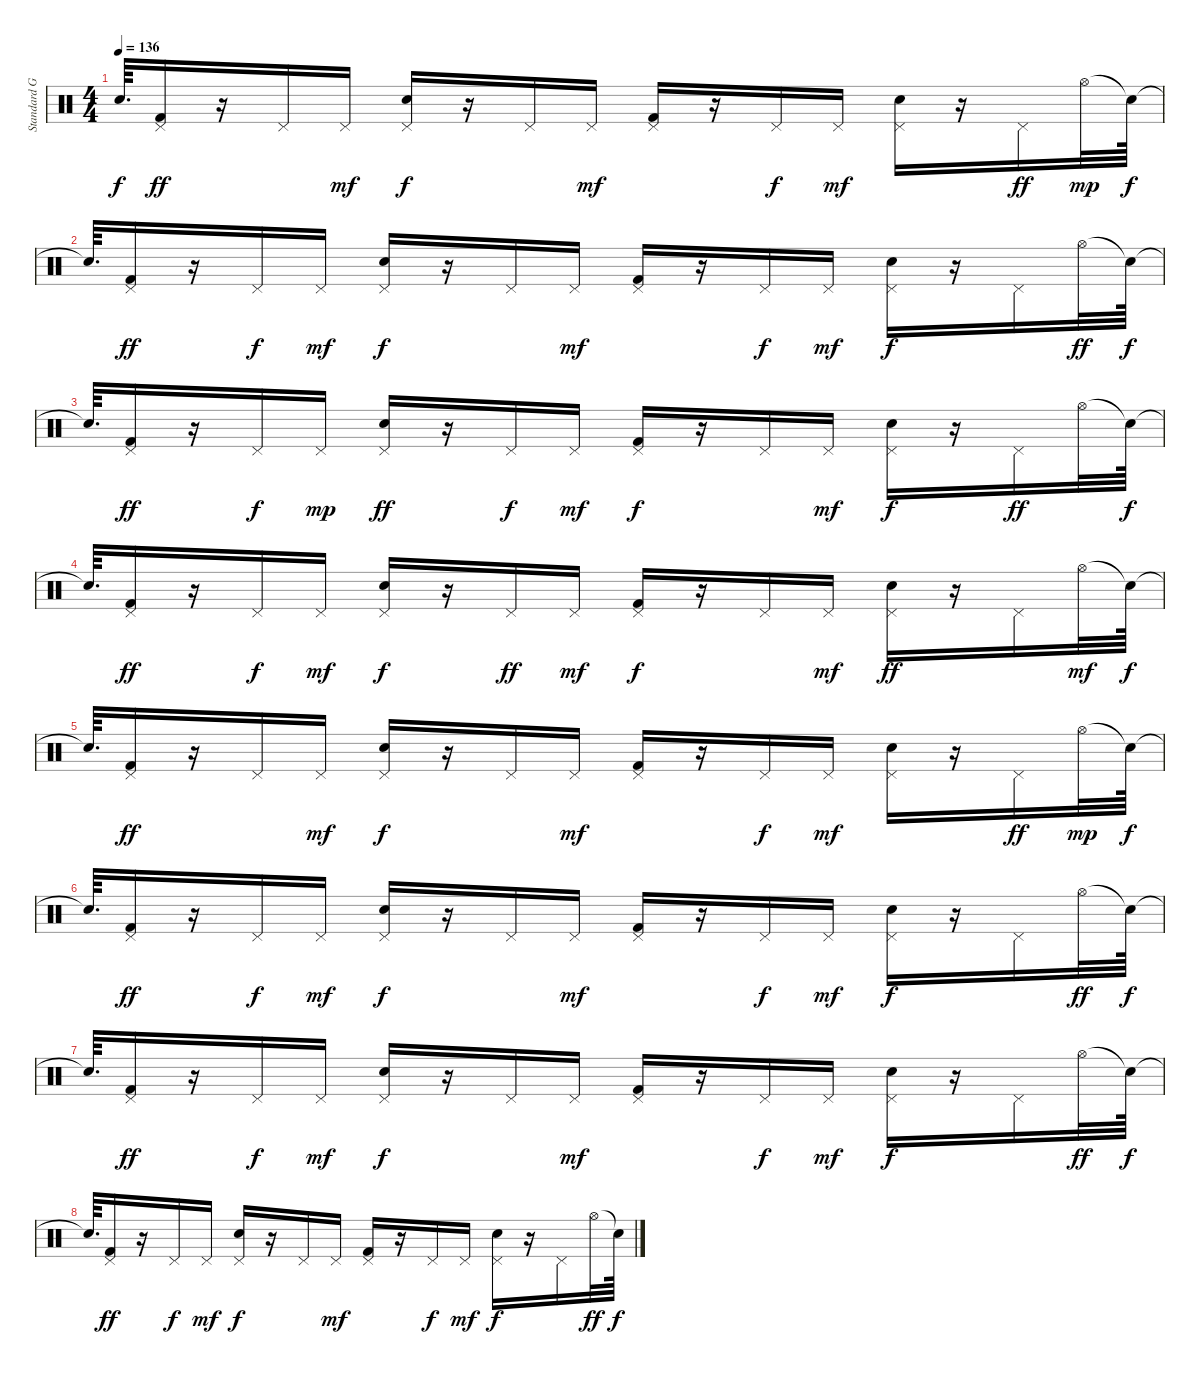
\track ("Standard GM Drum Kit" "Standard G") {instrument percussion}
\staff {score}
\articulation defaults
\ts (4 4)
\tempo 136
\clef neutral
\ks c "Snare (hit)"{t}.64{d dy f}
("Pedal Hi-Hat (hit)" "Kick (hit) 2").16{dy ff} r.16 "Pedal Hi-Hat (hit)".16 "Pedal Hi-Hat (hit)".16{dy mf} ("Pedal Hi-Hat (hit)" "Electric Snare (hit)").16{dy f} r.16 "Pedal Hi-Hat (hit)".16 "Pedal Hi-Hat (hit)".16{dy mf} ("Kick (hit) 2" "Pedal Hi-Hat (hit)").16 r.16 "Pedal Hi-Hat (hit)".16{dy f} "Pedal Hi-Hat (hit)".16{dy mf} ("Electric Snare (hit)" "Pedal Hi-Hat (hit)").16 r.16 "Pedal Hi-Hat (hit)".16{dy ff} "Hi-Hat (open)".32{dy mp} "Snare (hit)"{t}.64{dy f} |
"Snare (hit)"{t}.64{d} ("Kick (hit) 2" "Pedal Hi-Hat (hit)").16{dy ff} r.16 "Pedal Hi-Hat (hit)".16{dy f} "Pedal Hi-Hat (hit)".16{dy mf} ("Pedal Hi-Hat (hit)" "Electric Snare (hit)").16{dy f} r.16 "Pedal Hi-Hat (hit)".16 "Pedal Hi-Hat (hit)".16{dy mf} ("Pedal Hi-Hat (hit)" "Kick (hit) 2").16 r.16 "Pedal Hi-Hat (hit)".16{dy f} "Pedal Hi-Hat (hit)".16{dy mf} ("Pedal Hi-Hat (hit)" "Electric Snare (hit)").16{dy f} r.16 "Pedal Hi-Hat (hit)".16 "Hi-Hat (open)".32{dy ff} "Snare (hit)"{t}.64{dy f} |
"Snare (hit)"{t}.64{d} ("Pedal Hi-Hat (hit)" "Kick (hit) 2").16{dy ff} r.16 "Pedal Hi-Hat (hit)".16{dy f} "Pedal Hi-Hat (hit)".16{dy mp} ("Pedal Hi-Hat (hit)" "Electric Snare (hit)").16{dy ff} r.16 "Pedal Hi-Hat (hit)".16{dy f} "Pedal Hi-Hat (hit)".16{dy mf} ("Kick (hit) 2" "Pedal Hi-Hat (hit)").16{dy f} r.16 "Pedal Hi-Hat (hit)".16 "Pedal Hi-Hat (hit)".16{dy mf} ("Electric Snare (hit)" "Pedal Hi-Hat (hit)").16{dy f} r.16 "Pedal Hi-Hat (hit)".16{dy ff} "Hi-Hat (open)".32 "Snare (hit)"{t}.64{dy f} |
"Snare (hit)"{t}.64{d} ("Pedal Hi-Hat (hit)" "Kick (hit) 2").16{dy ff} r.16 "Pedal Hi-Hat (hit)".16{dy f} "Pedal Hi-Hat (hit)".16{dy mf} ("Pedal Hi-Hat (hit)" "Electric Snare (hit)").16{dy f} r.16 "Pedal Hi-Hat (hit)".16{dy ff} "Pedal Hi-Hat (hit)".16{dy mf} ("Kick (hit) 2" "Pedal Hi-Hat (hit)").16{dy f} r.16 "Pedal Hi-Hat (hit)".16 "Pedal Hi-Hat (hit)".16{dy mf} ("Electric Snare (hit)" "Pedal Hi-Hat (hit)").16{dy ff} r.16 "Pedal Hi-Hat (hit)".16 "Hi-Hat (open)".32{dy mf} "Snare (hit)"{t}.64{dy f} |
"Snare (hit)"{t}.64{d} ("Pedal Hi-Hat (hit)" "Kick (hit) 2").16{dy ff} r.16 "Pedal Hi-Hat (hit)".16 "Pedal Hi-Hat (hit)".16{dy mf} ("Pedal Hi-Hat (hit)" "Electric Snare (hit)").16{dy f} r.16 "Pedal Hi-Hat (hit)".16 "Pedal Hi-Hat (hit)".16{dy mf} ("Kick (hit) 2" "Pedal Hi-Hat (hit)").16 r.16 "Pedal Hi-Hat (hit)".16{dy f} "Pedal Hi-Hat (hit)".16{dy mf} ("Electric Snare (hit)" "Pedal Hi-Hat (hit)").16 r.16 "Pedal Hi-Hat (hit)".16{dy ff} "Hi-Hat (open)".32{dy mp} "Snare (hit)"{t}.64{dy f} |
"Snare (hit)"{t}.64{d} ("Pedal Hi-Hat (hit)" "Kick (hit) 2").16{dy ff} r.16 "Pedal Hi-Hat (hit)".16{dy f} "Pedal Hi-Hat (hit)".16{dy mf} ("Pedal Hi-Hat (hit)" "Electric Snare (hit)").16{dy f} r.16 "Pedal Hi-Hat (hit)".16 "Pedal Hi-Hat (hit)".16{dy mf} ("Pedal Hi-Hat (hit)" "Kick (hit) 2").16 r.16 "Pedal Hi-Hat (hit)".16{dy f} "Pedal Hi-Hat (hit)".16{dy mf} ("Pedal Hi-Hat (hit)" "Electric Snare (hit)").16{dy f} r.16 "Pedal Hi-Hat (hit)".16 "Hi-Hat (open)".32{dy ff} "Snare (hit)"{t}.64{dy f} |
"Snare (hit)"{t}.64{d} ("Pedal Hi-Hat (hit)" "Kick (hit) 2").16{dy ff} r.16 "Pedal Hi-Hat (hit)".16{dy f} "Pedal Hi-Hat (hit)".16{dy mf} ("Pedal Hi-Hat (hit)" "Electric Snare (hit)").16{dy f} r.16 "Pedal Hi-Hat (hit)".16 "Pedal Hi-Hat (hit)".16{dy mf} ("Pedal Hi-Hat (hit)" "Kick (hit) 2").16 r.16 "Pedal Hi-Hat (hit)".16{dy f} "Pedal Hi-Hat (hit)".16{dy mf} ("Pedal Hi-Hat (hit)" "Electric Snare (hit)").16{dy f} r.16 "Pedal Hi-Hat (hit)".16 "Hi-Hat (open)".32{dy ff} "Snare (hit)"{t}.64{dy f} |
"Snare (hit)"{t}.64{d} ("Pedal Hi-Hat (hit)" "Kick (hit) 2").16{dy ff} r.16 "Pedal Hi-Hat (hit)".16{dy f} "Pedal Hi-Hat (hit)".16{dy mf} ("Pedal Hi-Hat (hit)" "Electric Snare (hit)").16{dy f} r.16 "Pedal Hi-Hat (hit)".16 "Pedal Hi-Hat (hit)".16{dy mf} ("Pedal Hi-Hat (hit)" "Kick (hit) 2").16 r.16 "Pedal Hi-Hat (hit)".16{dy f} "Pedal Hi-Hat (hit)".16{dy mf} ("Pedal Hi-Hat (hit)" "Electric Snare (hit)").16{dy f} r.16 "Pedal Hi-Hat (hit)".16 "Hi-Hat (open)".32{dy ff} "Snare (hit)"{t}.64{dy f}
